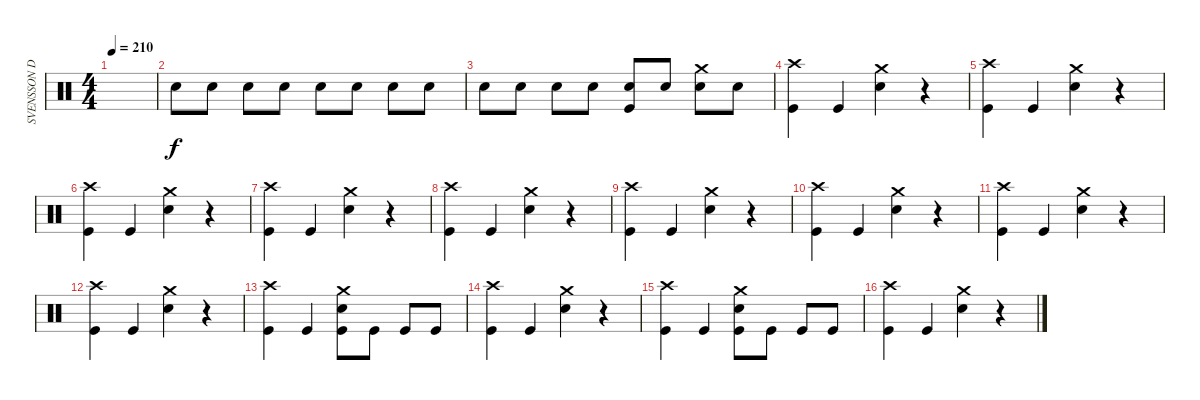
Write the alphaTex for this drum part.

\track ("SVENSSON DRUMS" "SVENSSON D") {instrument percussion}
\staff {score}
\articulation defaults
\ts (4 4)
\tempo 210
\clef neutral
\ks c
|
"Electric Snare (hit)".8 "Electric Snare (hit)".8 "Electric Snare (hit)".8 "Electric Snare (hit)".8 "Electric Snare (hit)".8 "Electric Snare (hit)".8 "Electric Snare (hit)".8 "Electric Snare (hit)".8 |
"Electric Snare (hit)".8 "Electric Snare (hit)".8 "Electric Snare (hit)".8 "Electric Snare (hit)".8 ("Electric Snare (hit)" "Kick (hit)").8 "Electric Snare (hit)".8 ("Crash medium (hit)" "Electric Snare (hit)").8 "Electric Snare (hit)".8 |
("Crash high (hit)" "Kick (hit)").4 "Kick (hit)".4 ("Crash medium (hit)" "Electric Snare (hit)").4 r.4 |
("Crash high (hit)" "Kick (hit)").4 "Kick (hit)".4 ("Crash medium (hit)" "Electric Snare (hit)").4 r.4 |
("Crash high (hit)" "Kick (hit)").4 "Kick (hit)".4 ("Crash medium (hit)" "Electric Snare (hit)").4 r.4 |
("Crash high (hit)" "Kick (hit)").4 "Kick (hit)".4 ("Crash medium (hit)" "Electric Snare (hit)").4 r.4 |
("Crash high (hit)" "Kick (hit)").4 "Kick (hit)".4 ("Crash medium (hit)" "Electric Snare (hit)").4 r.4 |
("Crash high (hit)" "Kick (hit)").4 "Kick (hit)".4 ("Crash medium (hit)" "Electric Snare (hit)").4 r.4 |
("Crash high (hit)" "Kick (hit)").4 "Kick (hit)".4 ("Crash medium (hit)" "Electric Snare (hit)").4 r.4 |
("Crash high (hit)" "Kick (hit)").4 "Kick (hit)".4 ("Crash medium (hit)" "Electric Snare (hit)").4 r.4 |
("Crash high (hit)" "Kick (hit)").4 "Kick (hit)".4 ("Crash medium (hit)" "Electric Snare (hit)").4 r.4 |
("Crash high (hit)" "Kick (hit)").4 "Kick (hit)".4 ("Crash medium (hit)" "Electric Snare (hit)" "Kick (hit)").8 "Kick (hit)".8 "Kick (hit)".8 "Kick (hit)".8 |
("Crash high (hit)" "Kick (hit)").4 "Kick (hit)".4 ("Crash medium (hit)" "Electric Snare (hit)").4 r.4 |
("Crash high (hit)" "Kick (hit)").4 "Kick (hit)".4 ("Crash medium (hit)" "Electric Snare (hit)" "Kick (hit)").8 "Kick (hit)".8 "Kick (hit)".8 "Kick (hit)".8 |
("Crash high (hit)" "Kick (hit)").4 "Kick (hit)".4 ("Crash medium (hit)" "Electric Snare (hit)").4 r.4
